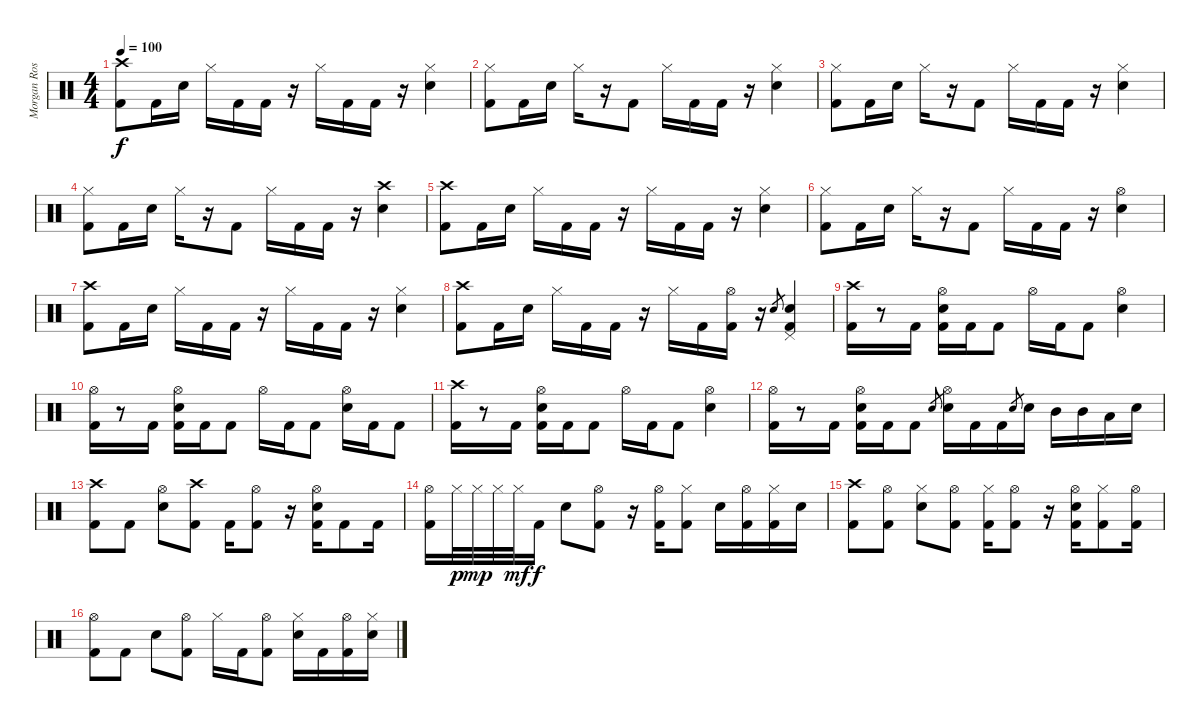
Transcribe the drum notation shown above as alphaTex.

\track ("Morgan Rose - Drums" "Morgan Ros") {instrument percussion}
\staff {score}
\articulation defaults
\ts (4 4)
\tempo 100
\clef neutral
\ks c
("Crash high (hit)" "Kick (hit) 2").8{dy f} "Kick (hit) 2".16 "Electric Snare (hit)".16 "Hi-Hat (closed)".16 "Kick (hit) 2".16 "Kick (hit) 2".16 r.16 "Hi-Hat (closed)".16 "Kick (hit) 2".16 "Kick (hit) 2".16 r.16 ("Hi-Hat (closed)" "Electric Snare (hit)").4 |
("Hi-Hat (closed)" "Kick (hit) 2").8 "Kick (hit) 2".16 "Electric Snare (hit)".16 "Hi-Hat (closed)".16 r.16 "Kick (hit) 2".8 "Hi-Hat (closed)".16 "Kick (hit) 2".16 "Kick (hit) 2".16 r.16 ("Hi-Hat (closed)" "Electric Snare (hit)").4 |
("Hi-Hat (closed)" "Kick (hit) 2").8 "Kick (hit) 2".16 "Electric Snare (hit)".16 "Hi-Hat (closed)".16 r.16 "Kick (hit) 2".8 "Hi-Hat (closed)".16 "Kick (hit) 2".16 "Kick (hit) 2".16 r.16 ("Hi-Hat (closed)" "Electric Snare (hit)").4 |
("Hi-Hat (closed)" "Kick (hit) 2").8 "Kick (hit) 2".16 "Electric Snare (hit)".16 "Hi-Hat (closed)".16 r.16 "Kick (hit) 2".8 "Hi-Hat (closed)".16 "Kick (hit) 2".16 "Kick (hit) 2".16 r.16 ("Crash high (hit)" "Electric Snare (hit)").4 |
("Crash high (hit)" "Kick (hit) 2").8 "Kick (hit) 2".16 "Electric Snare (hit)".16 "Hi-Hat (closed)".16 "Kick (hit) 2".16 "Kick (hit) 2".16 r.16 "Hi-Hat (closed)".16 "Kick (hit) 2".16 "Kick (hit) 2".16 r.16 ("Hi-Hat (closed)" "Electric Snare (hit)").4 |
("Hi-Hat (closed)" "Kick (hit) 2").8 "Kick (hit) 2".16 "Electric Snare (hit)".16 "Hi-Hat (closed)".16 r.16 "Kick (hit) 2".8 "Hi-Hat (closed)".16 "Kick (hit) 2".16 "Kick (hit) 2".16 r.16 ("Hi-Hat (open)" "Electric Snare (hit)").4 |
("Crash high (hit)" "Kick (hit) 2").8 "Kick (hit) 2".16 "Electric Snare (hit)".16 "Hi-Hat (closed)".16 "Kick (hit) 2".16 "Kick (hit) 2".16 r.16 "Hi-Hat (closed)".16 "Kick (hit) 2".16 "Kick (hit) 2".16 r.16 ("Hi-Hat (closed)" "Electric Snare (hit)").4 |
("Crash high (hit)" "Kick (hit) 2").8 "Kick (hit) 2".16 "Electric Snare (hit)".16 "Hi-Hat (closed)".16 "Kick (hit) 2".16 "Kick (hit) 2".16 r.16 "Hi-Hat (closed)".16 "Kick (hit) 2".16 ("Hi-Hat (open)" "Kick (hit) 2").16 r.16 "Electric Snare (hit)".8{gr} ("Pedal Hi-Hat (hit)" "Electric Snare (hit)" "Kick (hit) 2").4 |
("Crash high (hit)" "Kick (hit) 2").16 r.8 "Kick (hit) 2".16 ("Hi-Hat (open)" "Electric Snare (hit)" "Kick (hit) 2").16 "Kick (hit) 2".16 "Kick (hit) 2".8 "Hi-Hat (open)".16 "Kick (hit) 2".16 "Kick (hit) 2".8 ("Hi-Hat (open)" "Electric Snare (hit)").4 |
("Hi-Hat (open)" "Kick (hit) 2").16 r.8 "Kick (hit) 2".16 ("Hi-Hat (open)" "Electric Snare (hit)" "Kick (hit) 2").16 "Kick (hit) 2".16 "Kick (hit) 2".8 "Hi-Hat (open)".16 "Kick (hit) 2".16 "Kick (hit) 2".8 ("Hi-Hat (open)" "Electric Snare (hit)").16 "Kick (hit) 2".16 "Kick (hit) 2".8 |
("Crash high (hit)" "Kick (hit) 2").16 r.8 "Kick (hit) 2".16 ("Hi-Hat (open)" "Electric Snare (hit)" "Kick (hit) 2").16 "Kick (hit) 2".16 "Kick (hit) 2".8 "Hi-Hat (open)".16 "Kick (hit) 2".16 "Kick (hit) 2".8 ("Hi-Hat (open)" "Electric Snare (hit)").4 |
("Hi-Hat (open)" "Kick (hit) 2").16 r.8 "Kick (hit) 2".16 ("Hi-Hat (open)" "Electric Snare (hit)" "Kick (hit) 2").16 "Kick (hit) 2".16 "Kick (hit) 2".8 "Electric Snare (hit)"{sl}.8{gr} ("Hi-Hat (open)" "Electric Snare (hit)").16 "Kick (hit) 2".16 "Kick (hit) 2".16 "Electric Snare (hit)".8{gr} "Electric Snare (hit)".16 "Mid Tom (hit)".16 "Mid Tom (hit)".16 "Low Tom (hit)".16 "Electric Snare (hit)".16 |
("Crash high (hit)" "Kick (hit) 2").8 "Kick (hit) 2".8 ("Hi-Hat (open)" "Electric Snare (hit)").8 ("Crash high (hit)" "Kick (hit) 2").8 "Kick (hit) 2".16 ("Hi-Hat (open)" "Kick (hit) 2").8 r.16 ("Hi-Hat (open)" "Electric Snare (hit)" "Kick (hit) 2").16 "Kick (hit) 2".8 "Kick (hit) 2".16 |
("Hi-Hat (open)" "Kick (hit) 2").16 "Hi-Hat (closed)".32{dy p} "Hi-Hat (closed)".32{dy mp} "Hi-Hat (closed)".32 "Hi-Hat (closed)".32{dy mf} "Kick (hit) 2".16{dy f} "Electric Snare (hit)".8 ("Hi-Hat (open)" "Kick (hit) 2").8 r.16 ("Hi-Hat (open)" "Kick (hit) 2").16 ("Hi-Hat (closed)" "Kick (hit) 2").8 "Electric Snare (hit)".16 ("Hi-Hat (open)" "Kick (hit) 2").16 ("Hi-Hat (closed)" "Kick (hit) 2").16 "Electric Snare (hit)".16 |
("Crash high (hit)" "Kick (hit) 2").8 ("Hi-Hat (open)" "Kick (hit) 2").8 ("Hi-Hat (closed)" "Electric Snare (hit)").8 ("Hi-Hat (open)" "Kick (hit) 2").8 ("Hi-Hat (closed)" "Kick (hit) 2").16 ("Hi-Hat (open)" "Kick (hit) 2").8 r.16 ("Hi-Hat (open)" "Electric Snare (hit)" "Kick (hit) 2").16 ("Hi-Hat (closed)" "Kick (hit) 2").8 ("Hi-Hat (open)" "Kick (hit) 2").16 |
("Hi-Hat (open)" "Kick (hit) 2").8 "Kick (hit) 2".8 "Electric Snare (hit)".8 ("Hi-Hat (open)" "Kick (hit) 2").8 "Hi-Hat (closed)".16 "Kick (hit) 2".16 ("Hi-Hat (open)" "Kick (hit) 2").8 ("Hi-Hat (closed)" "Electric Snare (hit)").16 "Kick (hit) 2".16 ("Hi-Hat (open)" "Kick (hit) 2").16 ("Hi-Hat (closed)" "Electric Snare (hit)").16
